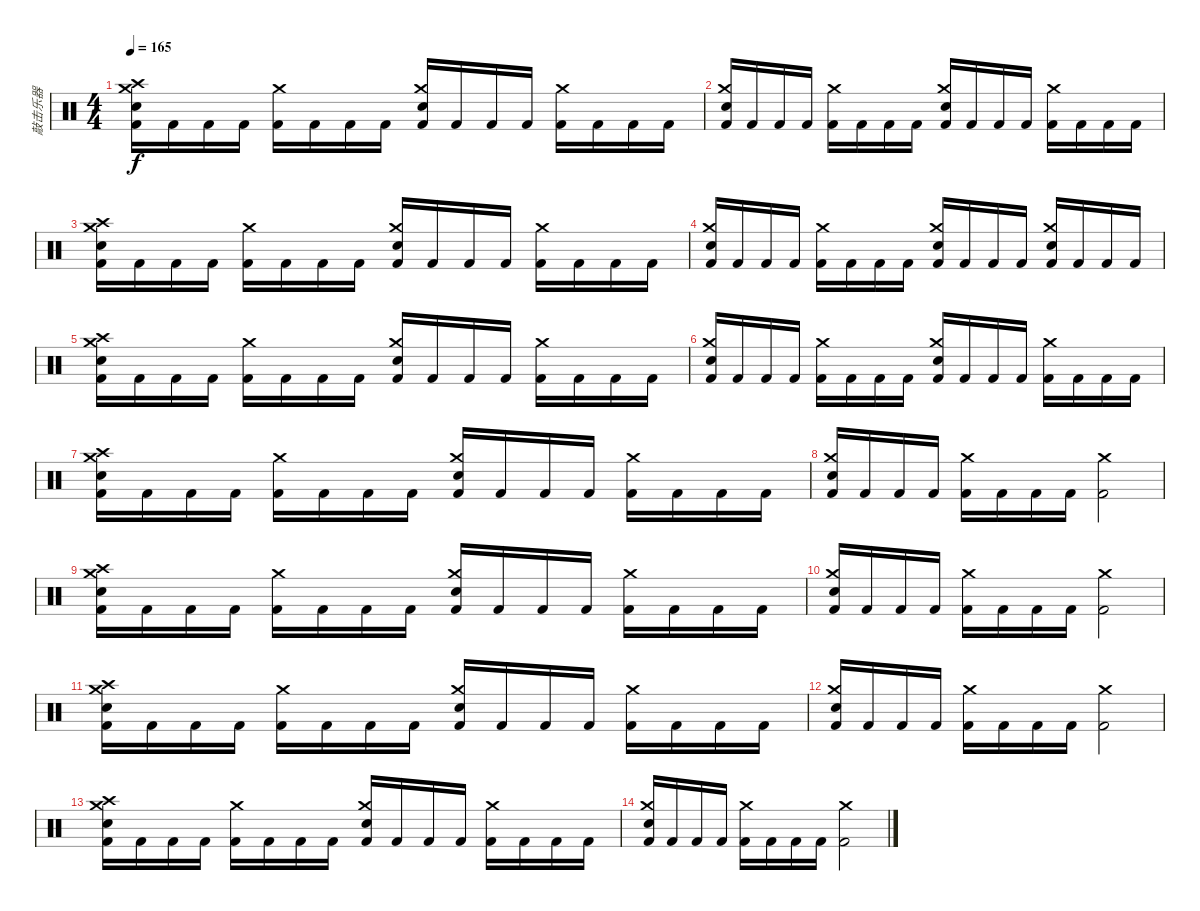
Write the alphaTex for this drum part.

\track ("敲击乐器" "敲击乐器") {instrument percussion}
\staff {score}
\articulation defaults
\ts (4 4)
\tempo 165
\clef neutral
\ks c
("Snare (hit) 2" "Crash medium (hit)" "Kick (hit) 2" "Crash high (hit)").16{dy f} "Kick (hit) 2".16 "Kick (hit) 2".16 "Kick (hit) 2".16 ("Crash medium (hit)" "Kick (hit) 2").16 "Kick (hit) 2".16 "Kick (hit) 2".16 "Kick (hit) 2".16 ("Snare (hit) 2" "Crash medium (hit)" "Kick (hit) 2").16 "Kick (hit) 2".16 "Kick (hit) 2".16 "Kick (hit) 2".16 ("Crash medium (hit)" "Kick (hit) 2").16 "Kick (hit) 2".16 "Kick (hit) 2".16 "Kick (hit) 2".16 |
("Snare (hit) 2" "Crash medium (hit)" "Kick (hit) 2").16 "Kick (hit) 2".16 "Kick (hit) 2".16 "Kick (hit) 2".16 ("Crash medium (hit)" "Kick (hit) 2").16 "Kick (hit) 2".16 "Kick (hit) 2".16 "Kick (hit) 2".16 ("Snare (hit) 2" "Crash medium (hit)" "Kick (hit) 2").16 "Kick (hit) 2".16 "Kick (hit) 2".16 "Kick (hit) 2".16 ("Crash medium (hit)" "Kick (hit) 2").16 "Kick (hit) 2".16 "Kick (hit) 2".16 "Kick (hit) 2".16 |
("Snare (hit) 2" "Crash medium (hit)" "Kick (hit) 2" "Crash high (hit)").16 "Kick (hit) 2".16 "Kick (hit) 2".16 "Kick (hit) 2".16 ("Crash medium (hit)" "Kick (hit) 2").16 "Kick (hit) 2".16 "Kick (hit) 2".16 "Kick (hit) 2".16 ("Snare (hit) 2" "Crash medium (hit)" "Kick (hit) 2").16 "Kick (hit) 2".16 "Kick (hit) 2".16 "Kick (hit) 2".16 ("Crash medium (hit)" "Kick (hit) 2").16 "Kick (hit) 2".16 "Kick (hit) 2".16 "Kick (hit) 2".16 |
("Snare (hit) 2" "Crash medium (hit)" "Kick (hit) 2").16 "Kick (hit) 2".16 "Kick (hit) 2".16 "Kick (hit) 2".16 ("Crash medium (hit)" "Kick (hit) 2").16 "Kick (hit) 2".16 "Kick (hit) 2".16 "Kick (hit) 2".16 ("Snare (hit) 2" "Crash medium (hit)" "Kick (hit) 2").16 "Kick (hit) 2".16 "Kick (hit) 2".16 "Kick (hit) 2".16 ("Snare (hit) 2" "Crash medium (hit)" "Kick (hit) 2").16 "Kick (hit) 2".16 "Kick (hit) 2".16 "Kick (hit) 2".16 |
("Snare (hit) 2" "Crash medium (hit)" "Kick (hit) 2" "Crash high (hit)").16 "Kick (hit) 2".16 "Kick (hit) 2".16 "Kick (hit) 2".16 ("Crash medium (hit)" "Kick (hit) 2").16 "Kick (hit) 2".16 "Kick (hit) 2".16 "Kick (hit) 2".16 ("Snare (hit) 2" "Crash medium (hit)" "Kick (hit) 2").16 "Kick (hit) 2".16 "Kick (hit) 2".16 "Kick (hit) 2".16 ("Crash medium (hit)" "Kick (hit) 2").16 "Kick (hit) 2".16 "Kick (hit) 2".16 "Kick (hit) 2".16 |
("Snare (hit) 2" "Crash medium (hit)" "Kick (hit) 2").16 "Kick (hit) 2".16 "Kick (hit) 2".16 "Kick (hit) 2".16 ("Crash medium (hit)" "Kick (hit) 2").16 "Kick (hit) 2".16 "Kick (hit) 2".16 "Kick (hit) 2".16 ("Snare (hit) 2" "Crash medium (hit)" "Kick (hit) 2").16 "Kick (hit) 2".16 "Kick (hit) 2".16 "Kick (hit) 2".16 ("Crash medium (hit)" "Kick (hit) 2").16 "Kick (hit) 2".16 "Kick (hit) 2".16 "Kick (hit) 2".16 |
("Snare (hit) 2" "Crash medium (hit)" "Kick (hit) 2" "Crash high (hit)").16 "Kick (hit) 2".16 "Kick (hit) 2".16 "Kick (hit) 2".16 ("Crash medium (hit)" "Kick (hit) 2").16 "Kick (hit) 2".16 "Kick (hit) 2".16 "Kick (hit) 2".16 ("Snare (hit) 2" "Crash medium (hit)" "Kick (hit) 2").16 "Kick (hit) 2".16 "Kick (hit) 2".16 "Kick (hit) 2".16 ("Crash medium (hit)" "Kick (hit) 2").16 "Kick (hit) 2".16 "Kick (hit) 2".16 "Kick (hit) 2".16 |
("Snare (hit) 2" "Crash medium (hit)" "Kick (hit) 2").16 "Kick (hit) 2".16 "Kick (hit) 2".16 "Kick (hit) 2".16 ("Crash medium (hit)" "Kick (hit) 2").16 "Kick (hit) 2".16 "Kick (hit) 2".16 "Kick (hit) 2".16 ("Crash medium (hit)" "Kick (hit) 2").2 |
("Snare (hit) 2" "Crash medium (hit)" "Kick (hit) 2" "Crash high (hit)").16 "Kick (hit) 2".16 "Kick (hit) 2".16 "Kick (hit) 2".16 ("Crash medium (hit)" "Kick (hit) 2").16 "Kick (hit) 2".16 "Kick (hit) 2".16 "Kick (hit) 2".16 ("Snare (hit) 2" "Crash medium (hit)" "Kick (hit) 2").16 "Kick (hit) 2".16 "Kick (hit) 2".16 "Kick (hit) 2".16 ("Crash medium (hit)" "Kick (hit) 2").16 "Kick (hit) 2".16 "Kick (hit) 2".16 "Kick (hit) 2".16 |
("Snare (hit) 2" "Crash medium (hit)" "Kick (hit) 2").16 "Kick (hit) 2".16 "Kick (hit) 2".16 "Kick (hit) 2".16 ("Crash medium (hit)" "Kick (hit) 2").16 "Kick (hit) 2".16 "Kick (hit) 2".16 "Kick (hit) 2".16 ("Crash medium (hit)" "Kick (hit) 2").2 |
("Snare (hit) 2" "Crash medium (hit)" "Kick (hit) 2" "Crash high (hit)").16 "Kick (hit) 2".16 "Kick (hit) 2".16 "Kick (hit) 2".16 ("Crash medium (hit)" "Kick (hit) 2").16 "Kick (hit) 2".16 "Kick (hit) 2".16 "Kick (hit) 2".16 ("Snare (hit) 2" "Crash medium (hit)" "Kick (hit) 2").16 "Kick (hit) 2".16 "Kick (hit) 2".16 "Kick (hit) 2".16 ("Crash medium (hit)" "Kick (hit) 2").16 "Kick (hit) 2".16 "Kick (hit) 2".16 "Kick (hit) 2".16 |
("Snare (hit) 2" "Crash medium (hit)" "Kick (hit) 2").16 "Kick (hit) 2".16 "Kick (hit) 2".16 "Kick (hit) 2".16 ("Crash medium (hit)" "Kick (hit) 2").16 "Kick (hit) 2".16 "Kick (hit) 2".16 "Kick (hit) 2".16 ("Crash medium (hit)" "Kick (hit) 2").2 |
("Snare (hit) 2" "Crash medium (hit)" "Kick (hit) 2" "Crash high (hit)").16 "Kick (hit) 2".16 "Kick (hit) 2".16 "Kick (hit) 2".16 ("Crash medium (hit)" "Kick (hit) 2").16 "Kick (hit) 2".16 "Kick (hit) 2".16 "Kick (hit) 2".16 ("Snare (hit) 2" "Crash medium (hit)" "Kick (hit) 2").16 "Kick (hit) 2".16 "Kick (hit) 2".16 "Kick (hit) 2".16 ("Crash medium (hit)" "Kick (hit) 2").16 "Kick (hit) 2".16 "Kick (hit) 2".16 "Kick (hit) 2".16 |
("Snare (hit) 2" "Crash medium (hit)" "Kick (hit) 2").16 "Kick (hit) 2".16 "Kick (hit) 2".16 "Kick (hit) 2".16 ("Crash medium (hit)" "Kick (hit) 2").16 "Kick (hit) 2".16 "Kick (hit) 2".16 "Kick (hit) 2".16 ("Crash medium (hit)" "Kick (hit) 2").2
